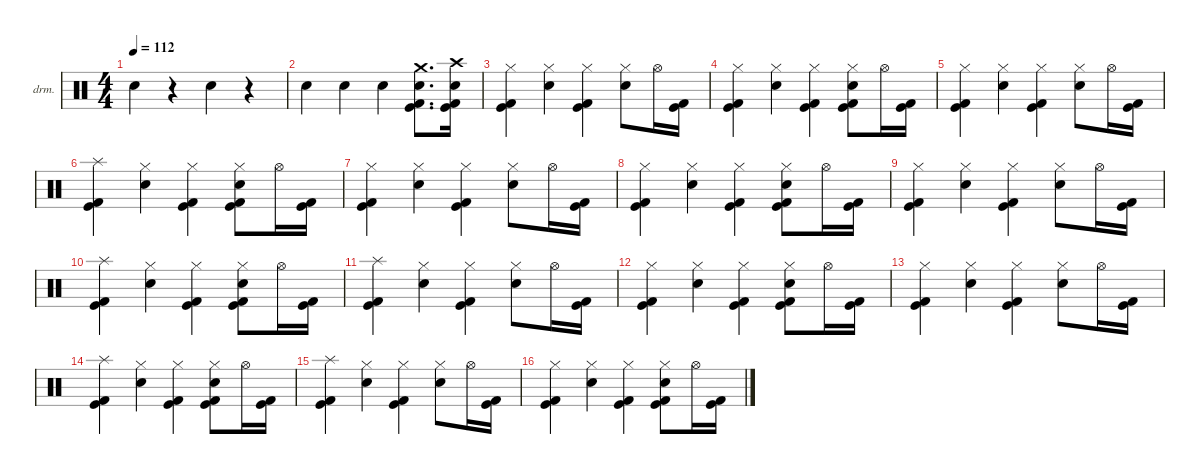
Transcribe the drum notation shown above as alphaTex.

\defaultSystemsLayout 4
\hideDynamics
\bracketExtendMode nobrackets
\firstSystemTrackNameOrientation horizontal
\otherSystemsTrackNameOrientation horizontal
\track ("Drums" "drm.") {instrument percussion}
\staff {score}
\articulation defaults
\ts (4 4)
\beaming (8 2 2 2 2)
\tempo 112
\clef neutral
\ks c "Snare (hit) 2".4{dy f}
r.4 "Snare (hit) 2".4 r.4 |
"Snare (hit) 2".4 "Snare (hit) 2".4 "Snare (hit) 2".4 ("Crash medium (hit)" "Snare (hit) 2" "Kick (hit) 2" "Kick (hit)").8{d} ("Crash high (hit)" "Snare (hit) 2" "Kick (hit) 2" "Kick (hit)").16 |
("Hi-Hat (closed)" "Kick (hit) 2" "Kick (hit)").4 ("Hi-Hat (closed)" "Snare (hit) 2").4 ("Hi-Hat (closed)" "Kick (hit) 2" "Kick (hit)").4 ("Hi-Hat (closed)" "Snare (hit) 2").8 "Hi-Hat (open)".16 ("Kick (hit) 2" "Kick (hit)").16 |
("Hi-Hat (closed)" "Kick (hit) 2" "Kick (hit)").4 ("Hi-Hat (closed)" "Snare (hit) 2").4 ("Hi-Hat (closed)" "Kick (hit) 2" "Kick (hit)").4 ("Hi-Hat (closed)" "Snare (hit) 2" "Kick (hit) 2" "Kick (hit)").8 "Hi-Hat (open)".16 ("Kick (hit) 2" "Kick (hit)").16 |
("Hi-Hat (closed)" "Kick (hit) 2" "Kick (hit)").4 ("Hi-Hat (closed)" "Snare (hit) 2").4 ("Hi-Hat (closed)" "Kick (hit) 2" "Kick (hit)").4 ("Hi-Hat (closed)" "Snare (hit) 2").8 "Hi-Hat (open)".16 ("Kick (hit) 2" "Kick (hit)").16 |
("Splash (hit)" "Kick (hit) 2" "Kick (hit)").4 ("Hi-Hat (closed)" "Snare (hit) 2").4 ("Hi-Hat (closed)" "Kick (hit) 2" "Kick (hit)").4 ("Hi-Hat (closed)" "Snare (hit) 2" "Kick (hit) 2" "Kick (hit)").8 "Hi-Hat (open)".16 ("Kick (hit) 2" "Kick (hit)").16 |
("Hi-Hat (closed)" "Kick (hit) 2" "Kick (hit)").4 ("Hi-Hat (closed)" "Snare (hit) 2").4 ("Hi-Hat (closed)" "Kick (hit) 2" "Kick (hit)").4 ("Hi-Hat (closed)" "Snare (hit) 2").8 "Hi-Hat (open)".16 ("Kick (hit) 2" "Kick (hit)").16 |
("Hi-Hat (closed)" "Kick (hit) 2" "Kick (hit)").4 ("Hi-Hat (closed)" "Snare (hit) 2").4 ("Hi-Hat (closed)" "Kick (hit) 2" "Kick (hit)").4 ("Hi-Hat (closed)" "Snare (hit) 2" "Kick (hit) 2" "Kick (hit)").8 "Hi-Hat (open)".16 ("Kick (hit) 2" "Kick (hit)").16 |
("Hi-Hat (closed)" "Kick (hit) 2" "Kick (hit)").4 ("Hi-Hat (closed)" "Snare (hit) 2").4 ("Hi-Hat (closed)" "Kick (hit) 2" "Kick (hit)").4 ("Hi-Hat (closed)" "Snare (hit) 2").8 "Hi-Hat (open)".16 ("Kick (hit) 2" "Kick (hit)").16 |
("Splash (hit)" "Kick (hit) 2" "Kick (hit)").4 ("Hi-Hat (closed)" "Snare (hit) 2").4 ("Hi-Hat (closed)" "Kick (hit) 2" "Kick (hit)").4 ("Hi-Hat (closed)" "Snare (hit) 2" "Kick (hit) 2" "Kick (hit)").8 "Hi-Hat (open)".16 ("Kick (hit) 2" "Kick (hit)").16 |
("Splash (hit)" "Kick (hit) 2" "Kick (hit)").4 ("Hi-Hat (closed)" "Snare (hit) 2").4 ("Hi-Hat (closed)" "Kick (hit) 2" "Kick (hit)").4 ("Hi-Hat (closed)" "Snare (hit) 2").8 "Hi-Hat (open)".16 ("Kick (hit) 2" "Kick (hit)").16 |
("Hi-Hat (closed)" "Kick (hit) 2" "Kick (hit)").4 ("Hi-Hat (closed)" "Snare (hit) 2").4 ("Hi-Hat (closed)" "Kick (hit) 2" "Kick (hit)").4 ("Hi-Hat (closed)" "Snare (hit) 2" "Kick (hit) 2" "Kick (hit)").8 "Hi-Hat (open)".16 ("Kick (hit) 2" "Kick (hit)").16 |
("Hi-Hat (closed)" "Kick (hit) 2" "Kick (hit)").4 ("Hi-Hat (closed)" "Snare (hit) 2").4 ("Hi-Hat (closed)" "Kick (hit) 2" "Kick (hit)").4 ("Hi-Hat (closed)" "Snare (hit) 2").8 "Hi-Hat (open)".16 ("Kick (hit) 2" "Kick (hit)").16 |
("Splash (hit)" "Kick (hit) 2" "Kick (hit)").4 ("Hi-Hat (closed)" "Snare (hit) 2").4 ("Hi-Hat (closed)" "Kick (hit) 2" "Kick (hit)").4 ("Hi-Hat (closed)" "Snare (hit) 2" "Kick (hit) 2" "Kick (hit)").8 "Hi-Hat (open)".16 ("Kick (hit) 2" "Kick (hit)").16 |
("Splash (hit)" "Kick (hit) 2" "Kick (hit)").4 ("Hi-Hat (closed)" "Snare (hit) 2").4 ("Hi-Hat (closed)" "Kick (hit) 2" "Kick (hit)").4 ("Hi-Hat (closed)" "Snare (hit) 2").8 "Hi-Hat (open)".16 ("Kick (hit) 2" "Kick (hit)").16 |
("Hi-Hat (closed)" "Kick (hit) 2" "Kick (hit)").4 ("Hi-Hat (closed)" "Snare (hit) 2").4 ("Hi-Hat (closed)" "Kick (hit) 2" "Kick (hit)").4 ("Hi-Hat (closed)" "Snare (hit) 2" "Kick (hit) 2" "Kick (hit)").8 "Hi-Hat (open)".16 ("Kick (hit) 2" "Kick (hit)").16
